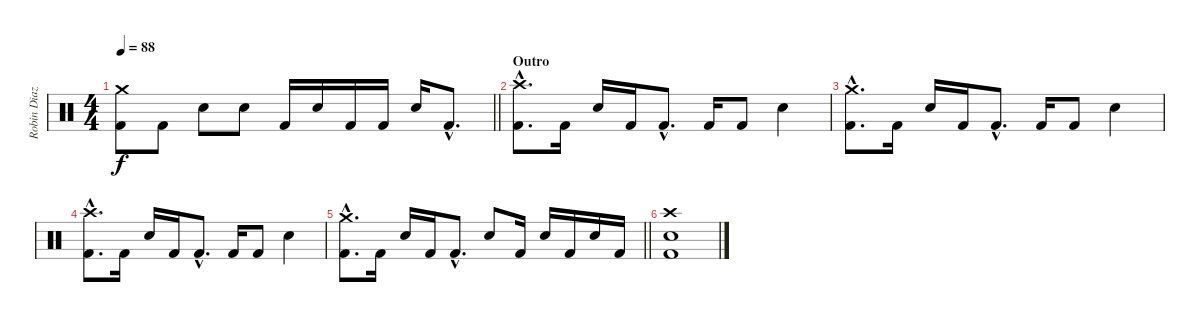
\track ("Robin Diaz (Drums)" "Robin Diaz") {instrument percussion}
\staff {score}
\articulation defaults
\ts (4 4)
\tempo 88
\clef neutral
\barLineRight lightlight
\ks c
("Crash medium (hit)" "Kick (hit) 2").8{dy f} "Kick (hit) 2".8 "Electric Snare (hit)".8 "Electric Snare (hit)".8 "Kick (hit) 2".16 "Electric Snare (hit)".16 "Kick (hit) 2".16 "Kick (hit) 2".16 "Electric Snare (hit)".16 "Kick (hit) 2"{hac}.8{d} |
\section ("" "Outro")
("Crash high (hit)"{hac} "Kick (hit) 2"{hac}).8{d} "Kick (hit) 2".16 "Electric Snare (hit)".16 "Kick (hit) 2".16 "Kick (hit) 2"{hac}.8{d} "Kick (hit) 2".16 "Kick (hit) 2".8 "Electric Snare (hit)".4 |
("Crash medium (hit)"{hac} "Kick (hit) 2"{hac}).8{d} "Kick (hit) 2".16 "Electric Snare (hit)".16 "Kick (hit) 2".16 "Kick (hit) 2"{hac}.8{d} "Kick (hit) 2".16 "Kick (hit) 2".8 "Electric Snare (hit)".4 |
("Crash high (hit)"{hac} "Kick (hit) 2"{hac}).8{d} "Kick (hit) 2".16 "Electric Snare (hit)".16 "Kick (hit) 2".16 "Kick (hit) 2"{hac}.8{d} "Kick (hit) 2".16 "Kick (hit) 2".8 "Electric Snare (hit)".4 |
\barLineRight lightlight
("Crash medium (hit)"{hac} "Kick (hit) 2"{hac}).8{d} "Kick (hit) 2".16 "Electric Snare (hit)".16 "Kick (hit) 2".16 "Kick (hit) 2"{hac}.8{d} "Electric Snare (hit)".8 "Kick (hit) 2".16 "Electric Snare (hit)".16 "Kick (hit) 2".16 "Electric Snare (hit)".16 "Kick (hit) 2".16 |
("Crash high (hit)" "Electric Snare (hit)" "Kick (hit) 2").1
